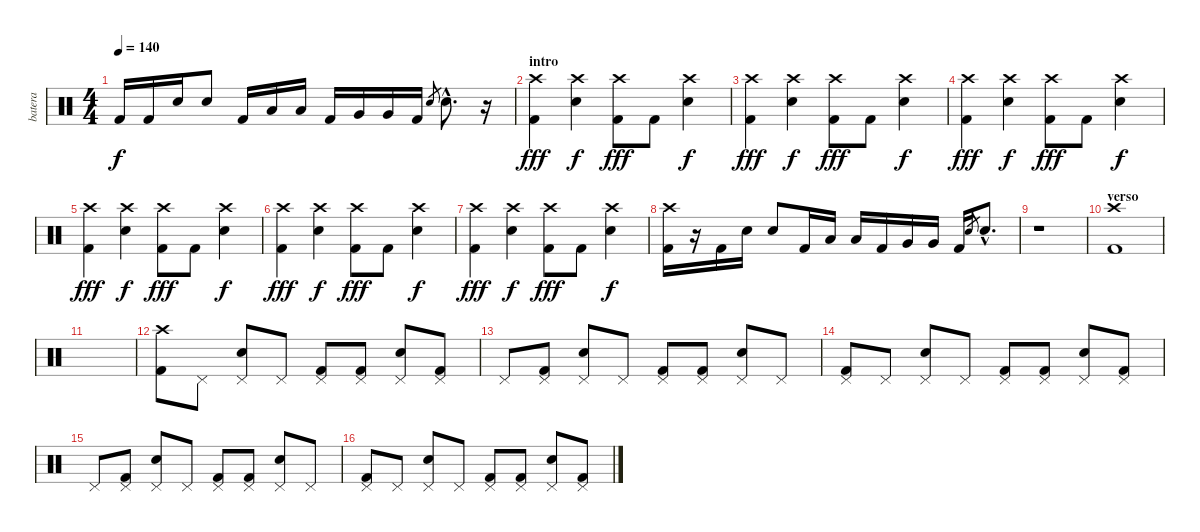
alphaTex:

\track ("batera" "batera") {instrument percussion}
\staff {score}
\articulation defaults
\ts (4 4)
\tempo 140
\clef neutral
\ks c "Kick (hit) 2".16{dy f} "Kick (hit) 2".16 "Snare (hit) 2".16 "Snare (hit) 2".8 "Kick (hit) 2".16 "Low Tom (hit)".16 "Low Tom (hit)".16 "Kick (hit) 2".16 "Very Low Tom (hit)".16 "Very Low Tom (hit)".16 "Kick (hit) 2".16 "Snare (hit) 2".8{gr} "Snare (hit) 2"{hac}.8{d}
r.16 |
\section ("" "intro")
("Crash high (hit)" "Kick (hit) 2").4{dy fff} ("Crash high (hit)" "Snare (hit) 2").4{dy f} ("Crash high (hit)" "Kick (hit) 2").8{dy fff} "Kick (hit) 2".8 ("Crash high (hit)" "Snare (hit) 2").4{dy f} |
("Crash high (hit)" "Kick (hit) 2").4{dy fff} ("Crash high (hit)" "Snare (hit) 2").4{dy f} ("Crash high (hit)" "Kick (hit) 2").8{dy fff} "Kick (hit) 2".8 ("Crash high (hit)" "Snare (hit) 2").4{dy f} |
("Crash high (hit)" "Kick (hit) 2").4{dy fff} ("Crash high (hit)" "Snare (hit) 2").4{dy f} ("Crash high (hit)" "Kick (hit) 2").8{dy fff} "Kick (hit) 2".8 ("Crash high (hit)" "Snare (hit) 2").4{dy f} |
("Crash high (hit)" "Kick (hit) 2").4{dy fff} ("Crash high (hit)" "Snare (hit) 2").4{dy f} ("Crash high (hit)" "Kick (hit) 2").8{dy fff} "Kick (hit) 2".8 ("Crash high (hit)" "Snare (hit) 2").4{dy f} |
("Crash high (hit)" "Kick (hit) 2").4{dy fff} ("Crash high (hit)" "Snare (hit) 2").4{dy f} ("Crash high (hit)" "Kick (hit) 2").8{dy fff} "Kick (hit) 2".8 ("Crash high (hit)" "Snare (hit) 2").4{dy f} |
("Crash high (hit)" "Kick (hit) 2").4{dy fff} ("Crash high (hit)" "Snare (hit) 2").4{dy f} ("Crash high (hit)" "Kick (hit) 2").8{dy fff} "Kick (hit) 2".8 ("Crash high (hit)" "Snare (hit) 2").4{dy f} |
("Crash high (hit)" "Kick (hit) 2").16 r.16 "Kick (hit) 2".16 "Snare (hit) 2".16 "Snare (hit) 2".8 "Kick (hit) 2".16 "Low Tom (hit)".16 "Low Tom (hit)".16 "Kick (hit) 2".16 "Very Low Tom (hit)".16 "Very Low Tom (hit)".16 "Kick (hit) 2".16 "Snare (hit) 2".8{gr} "Snare (hit) 2"{hac}.8{d} |
r.1 |
\section ("" "verso")
("Crash high (hit)" "Kick (hit) 2").1 |
|
("Crash high (hit)" "Kick (hit) 2").8 "Pedal Hi-Hat (hit)".8 ("Snare (hit) 2" "Pedal Hi-Hat (hit)").8 "Pedal Hi-Hat (hit)".8 ("Kick (hit) 2" "Pedal Hi-Hat (hit)").8 ("Kick (hit) 2" "Pedal Hi-Hat (hit)").8 ("Snare (hit) 2" "Pedal Hi-Hat (hit)").8 ("Kick (hit) 2" "Pedal Hi-Hat (hit)").8 |
"Pedal Hi-Hat (hit)".8 ("Kick (hit) 2" "Pedal Hi-Hat (hit)").8 ("Snare (hit) 2" "Pedal Hi-Hat (hit)").8 "Pedal Hi-Hat (hit)".8 ("Kick (hit) 2" "Pedal Hi-Hat (hit)").8 ("Kick (hit) 2" "Pedal Hi-Hat (hit)").8 ("Snare (hit) 2" "Pedal Hi-Hat (hit)").8 "Pedal Hi-Hat (hit)".8 |
("Kick (hit) 2" "Pedal Hi-Hat (hit)").8 "Pedal Hi-Hat (hit)".8 ("Snare (hit) 2" "Pedal Hi-Hat (hit)").8 "Pedal Hi-Hat (hit)".8 ("Kick (hit) 2" "Pedal Hi-Hat (hit)").8 ("Kick (hit) 2" "Pedal Hi-Hat (hit)").8 ("Snare (hit) 2" "Pedal Hi-Hat (hit)").8 ("Kick (hit) 2" "Pedal Hi-Hat (hit)").8 |
"Pedal Hi-Hat (hit)".8 ("Kick (hit) 2" "Pedal Hi-Hat (hit)").8 ("Snare (hit) 2" "Pedal Hi-Hat (hit)").8 "Pedal Hi-Hat (hit)".8 ("Kick (hit) 2" "Pedal Hi-Hat (hit)").8 ("Kick (hit) 2" "Pedal Hi-Hat (hit)").8 ("Snare (hit) 2" "Pedal Hi-Hat (hit)").8 "Pedal Hi-Hat (hit)".8 |
("Kick (hit) 2" "Pedal Hi-Hat (hit)").8 "Pedal Hi-Hat (hit)".8 ("Snare (hit) 2" "Pedal Hi-Hat (hit)").8 "Pedal Hi-Hat (hit)".8 ("Kick (hit) 2" "Pedal Hi-Hat (hit)").8 ("Kick (hit) 2" "Pedal Hi-Hat (hit)").8 ("Snare (hit) 2" "Pedal Hi-Hat (hit)").8 ("Kick (hit) 2" "Pedal Hi-Hat (hit)").8
